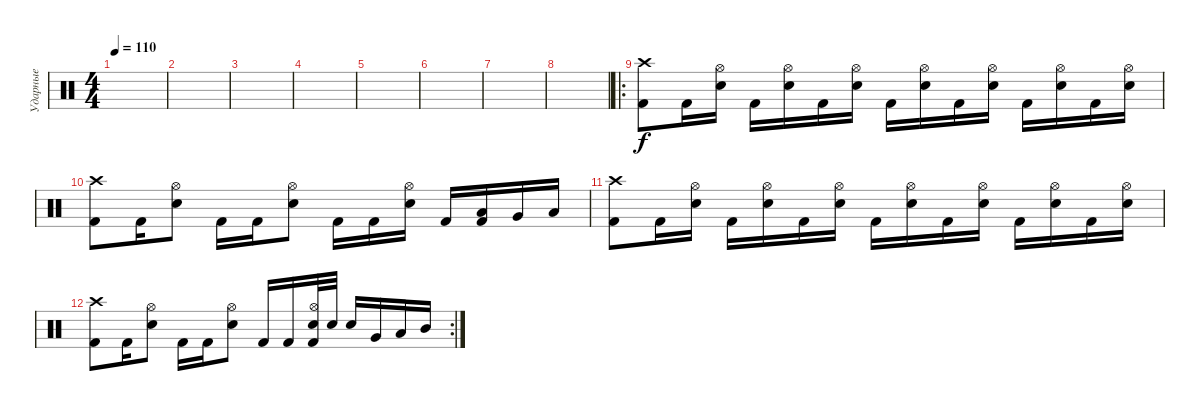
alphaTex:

\track ("Ударные" "Ударные") {instrument percussion}
\staff {score}
\articulation defaults
\ts (4 4)
\tempo 110
\clef neutral
\ks c
|
|
|
|
|
|
|
|
\ro
("Crash high (hit)" "Kick (hit) 2").8 "Kick (hit) 2".16 ("Hi-Hat (open)" "Electric Snare (hit)").16 "Kick (hit) 2".16 ("Hi-Hat (open)" "Electric Snare (hit)").16 "Kick (hit) 2".16 ("Hi-Hat (open)" "Electric Snare (hit)").16 "Kick (hit) 2".16 ("Hi-Hat (open)" "Electric Snare (hit)").16 "Kick (hit) 2".16 ("Hi-Hat (open)" "Electric Snare (hit)").16 "Kick (hit) 2".16 ("Hi-Hat (open)" "Electric Snare (hit)").16 "Kick (hit) 2".16 ("Hi-Hat (open)" "Electric Snare (hit)").16 |
("Crash high (hit)" "Kick (hit) 2").8 "Kick (hit) 2".16 ("Hi-Hat (open)" "Electric Snare (hit)").8 "Kick (hit) 2".16 "Kick (hit) 2".16 ("Hi-Hat (open)" "Electric Snare (hit)").8 "Kick (hit) 2".16 "Kick (hit) 2".16 ("Hi-Hat (open)" "Electric Snare (hit)").16 "Kick (hit) 2".16 ("Low Floor Tom (hit)" "Kick (hit) 2").16 "Very Low Tom (hit)".16 "Low Tom (hit)".16 |
("Crash high (hit)" "Kick (hit) 2").8 "Kick (hit) 2".16 ("Hi-Hat (open)" "Electric Snare (hit)").16 "Kick (hit) 2".16 ("Hi-Hat (open)" "Electric Snare (hit)").16 "Kick (hit) 2".16 ("Hi-Hat (open)" "Electric Snare (hit)").16 "Kick (hit) 2".16 ("Hi-Hat (open)" "Electric Snare (hit)").16 "Kick (hit) 2".16 ("Hi-Hat (open)" "Electric Snare (hit)").16 "Kick (hit) 2".16 ("Hi-Hat (open)" "Electric Snare (hit)").16 "Kick (hit) 2".16 ("Hi-Hat (open)" "Electric Snare (hit)").16 |
\rc 2
("Crash high (hit)" "Kick (hit) 2").8 "Kick (hit) 2".16 ("Hi-Hat (open)" "Electric Snare (hit)").8 "Kick (hit) 2".16 "Kick (hit) 2".16 ("Hi-Hat (open)" "Electric Snare (hit)").8 "Kick (hit) 2".16 "Kick (hit) 2".16 ("Hi-Hat (open)" "Electric Snare (hit)" "Kick (hit) 2").32 "Electric Snare (hit)".32 "Electric Snare (hit)".16 "Very Low Tom (hit)".16 "Low Tom (hit)".16 "Mid Tom (hit)".16
